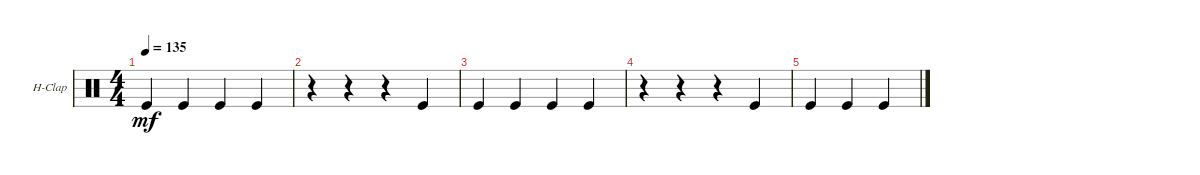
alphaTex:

\bracketExtendMode groupsimilarinstruments
\firstSystemTrackNameOrientation horizontal
\otherSystemsTrackNameOrientation horizontal
\track ("Hand Clap" "H-Clap") {instrument percussion}
\staff {score}
\articulation defaults
\ts (4 4)
\tempo 135
\clef neutral
\scale
0.333333
\ks c "Kick (hit)".4{dy mf} "Kick (hit)".4 "Kick (hit)".4 "Kick (hit)".4
|
\scale
0.333333 r.4 r.4 r.4 "Kick (hit)".4 |
\scale
0.333333 "Kick (hit)".4 "Kick (hit)".4 "Kick (hit)".4 "Kick (hit)".4 |
\scale
0.333333 r.4 r.4 r.4 "Kick (hit)".4 |
\scale
0.333333 "Kick (hit)".4 "Kick (hit)".4 "Kick (hit)".4 |
\scale
0.333333 |
\scale
0.333333 |
\scale
0.333333 |
\scale
0.333333 |
\scale
0.333333 |
\scale
0.333333 |
\scale
0.333333 |
\scale
0.333333 |
\scale
0.333333 |
\scale
0.333333 |
\scale
0.333333
